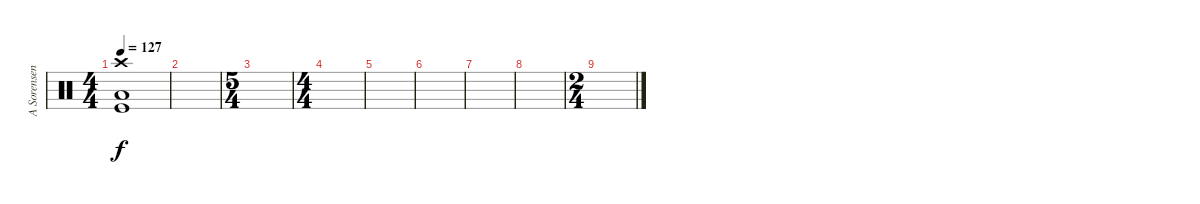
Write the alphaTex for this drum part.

\track ("A Sorensen" "A Sorensen") {instrument percussion}
\staff {score}
\articulation defaults
\ts (4 4)
\tempo 127
\clef neutral
\ks c
("Crash high (hit)" "Low Floor Tom (hit)" "Kick (hit)").1{dy f} |
|
\ts (5 4)
|
\ts (4 4)
|
|
|
|
|
\ts (2 4)
